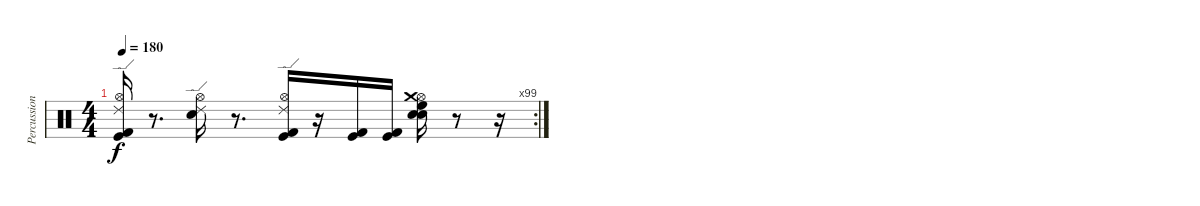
\track ("Percussion" "Percussion") {instrument percussion}
\staff {score}
\articulation defaults
\rc 99
\ts (4 4)
\tempo 180
\clef neutral
\ks c
("Kick (hit) 2" "Hi-Hat (open)" "Kick (hit)" "Ride (edge) 2").16{dy f} r.8{d} ("Electric Snare (hit)" "Hi-Hat (open)" "Ride (edge) 2").16 r.8{d} ("Hi-Hat (open)" "Ride (edge) 2" "Kick (hit)" "Kick (hit) 2").16 r.16 ("Kick (hit)" "Kick (hit) 2").16 ("Kick (hit)" "Kick (hit) 2").16 ("Electric Snare (hit)" "Hi-Hat (open)" "Crash medium (hit)" "Snare (hit) 2" "High Floor Tom (hit)").16 r.8 r.16
